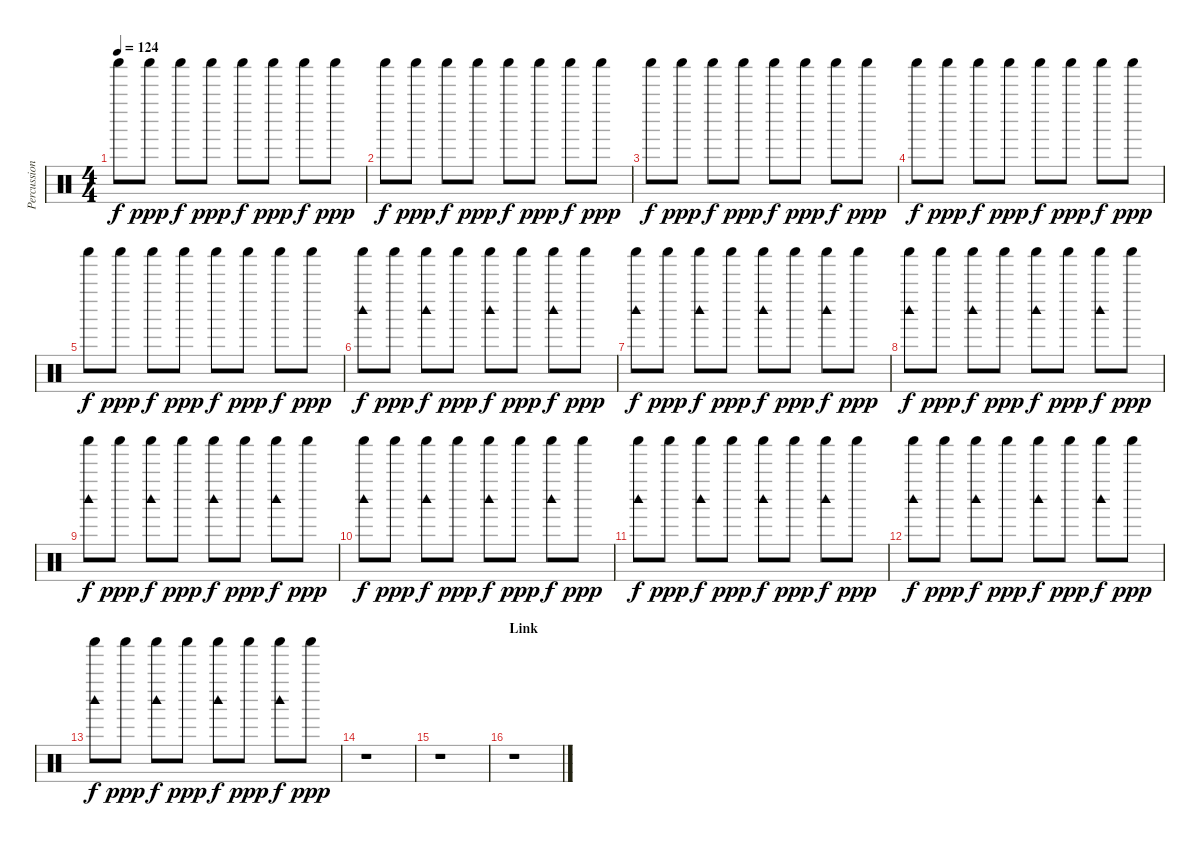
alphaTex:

\track ("Percussion" "Percussion") {instrument percussion}
\staff {score}
\articulation defaults
\ts (4 4)
\tempo 124
\clef neutral
\ks c "Shaker (hit)".8{dy f} "Shaker (hit)".8{dy ppp} "Shaker (hit)".8{dy f} "Shaker (hit)".8{dy ppp} "Shaker (hit)".8{dy f} "Shaker (hit)".8{dy ppp} "Shaker (hit)".8{dy f} "Shaker (hit)".8{dy ppp}
|
"Shaker (hit)".8{dy f} "Shaker (hit)".8{dy ppp} "Shaker (hit)".8{dy f} "Shaker (hit)".8{dy ppp} "Shaker (hit)".8{dy f} "Shaker (hit)".8{dy ppp} "Shaker (hit)".8{dy f} "Shaker (hit)".8{dy ppp} |
"Shaker (hit)".8{dy f} "Shaker (hit)".8{dy ppp} "Shaker (hit)".8{dy f} "Shaker (hit)".8{dy ppp} "Shaker (hit)".8{dy f} "Shaker (hit)".8{dy ppp} "Shaker (hit)".8{dy f} "Shaker (hit)".8{dy ppp} |
"Shaker (hit)".8{dy f} "Shaker (hit)".8{dy ppp} "Shaker (hit)".8{dy f} "Shaker (hit)".8{dy ppp} "Shaker (hit)".8{dy f} "Shaker (hit)".8{dy ppp} "Shaker (hit)".8{dy f} "Shaker (hit)".8{dy ppp} |
"Shaker (hit)".8{dy f} "Shaker (hit)".8{dy ppp} "Shaker (hit)".8{dy f} "Shaker (hit)".8{dy ppp} "Shaker (hit)".8{dy f} "Shaker (hit)".8{dy ppp} "Shaker (hit)".8{dy f} "Shaker (hit)".8{dy ppp} |
("Shaker (hit)" "Woodblock high (hit)").8{dy f} "Shaker (hit)".8{dy ppp} ("Shaker (hit)" "Woodblock high (hit)").8{dy f} "Shaker (hit)".8{dy ppp} ("Shaker (hit)" "Woodblock high (hit)").8{dy f} "Shaker (hit)".8{dy ppp} ("Shaker (hit)" "Woodblock high (hit)").8{dy f} "Shaker (hit)".8{dy ppp} |
("Shaker (hit)" "Woodblock high (hit)").8{dy f} "Shaker (hit)".8{dy ppp} ("Shaker (hit)" "Woodblock high (hit)").8{dy f} "Shaker (hit)".8{dy ppp} ("Shaker (hit)" "Woodblock high (hit)").8{dy f} "Shaker (hit)".8{dy ppp} ("Shaker (hit)" "Woodblock high (hit)").8{dy f} "Shaker (hit)".8{dy ppp} |
("Shaker (hit)" "Woodblock high (hit)").8{dy f} "Shaker (hit)".8{dy ppp} ("Shaker (hit)" "Woodblock high (hit)").8{dy f} "Shaker (hit)".8{dy ppp} ("Shaker (hit)" "Woodblock high (hit)").8{dy f} "Shaker (hit)".8{dy ppp} ("Shaker (hit)" "Woodblock high (hit)").8{dy f} "Shaker (hit)".8{dy ppp} |
("Shaker (hit)" "Woodblock high (hit)").8{dy f} "Shaker (hit)".8{dy ppp} ("Shaker (hit)" "Woodblock high (hit)").8{dy f} "Shaker (hit)".8{dy ppp} ("Shaker (hit)" "Woodblock high (hit)").8{dy f} "Shaker (hit)".8{dy ppp} ("Shaker (hit)" "Woodblock high (hit)").8{dy f} "Shaker (hit)".8{dy ppp} |
("Shaker (hit)" "Woodblock high (hit)").8{dy f} "Shaker (hit)".8{dy ppp} ("Shaker (hit)" "Woodblock high (hit)").8{dy f} "Shaker (hit)".8{dy ppp} ("Shaker (hit)" "Woodblock high (hit)").8{dy f} "Shaker (hit)".8{dy ppp} ("Shaker (hit)" "Woodblock high (hit)").8{dy f} "Shaker (hit)".8{dy ppp} |
("Shaker (hit)" "Woodblock high (hit)").8{dy f} "Shaker (hit)".8{dy ppp} ("Shaker (hit)" "Woodblock high (hit)").8{dy f} "Shaker (hit)".8{dy ppp} ("Shaker (hit)" "Woodblock high (hit)").8{dy f} "Shaker (hit)".8{dy ppp} ("Shaker (hit)" "Woodblock high (hit)").8{dy f} "Shaker (hit)".8{dy ppp} |
("Shaker (hit)" "Woodblock high (hit)").8{dy f} "Shaker (hit)".8{dy ppp} ("Shaker (hit)" "Woodblock high (hit)").8{dy f} "Shaker (hit)".8{dy ppp} ("Shaker (hit)" "Woodblock high (hit)").8{dy f} "Shaker (hit)".8{dy ppp} ("Shaker (hit)" "Woodblock high (hit)").8{dy f} "Shaker (hit)".8{dy ppp} |
("Shaker (hit)" "Woodblock high (hit)").8{dy f} "Shaker (hit)".8{dy ppp} ("Shaker (hit)" "Woodblock high (hit)").8{dy f} "Shaker (hit)".8{dy ppp} ("Shaker (hit)" "Woodblock high (hit)").8{dy f} "Shaker (hit)".8{dy ppp} ("Shaker (hit)" "Woodblock high (hit)").8{dy f} "Shaker (hit)".8{dy ppp} |
\section ("" "")
r.1 |
r.1 |
\section ("" "Link")
r.1
